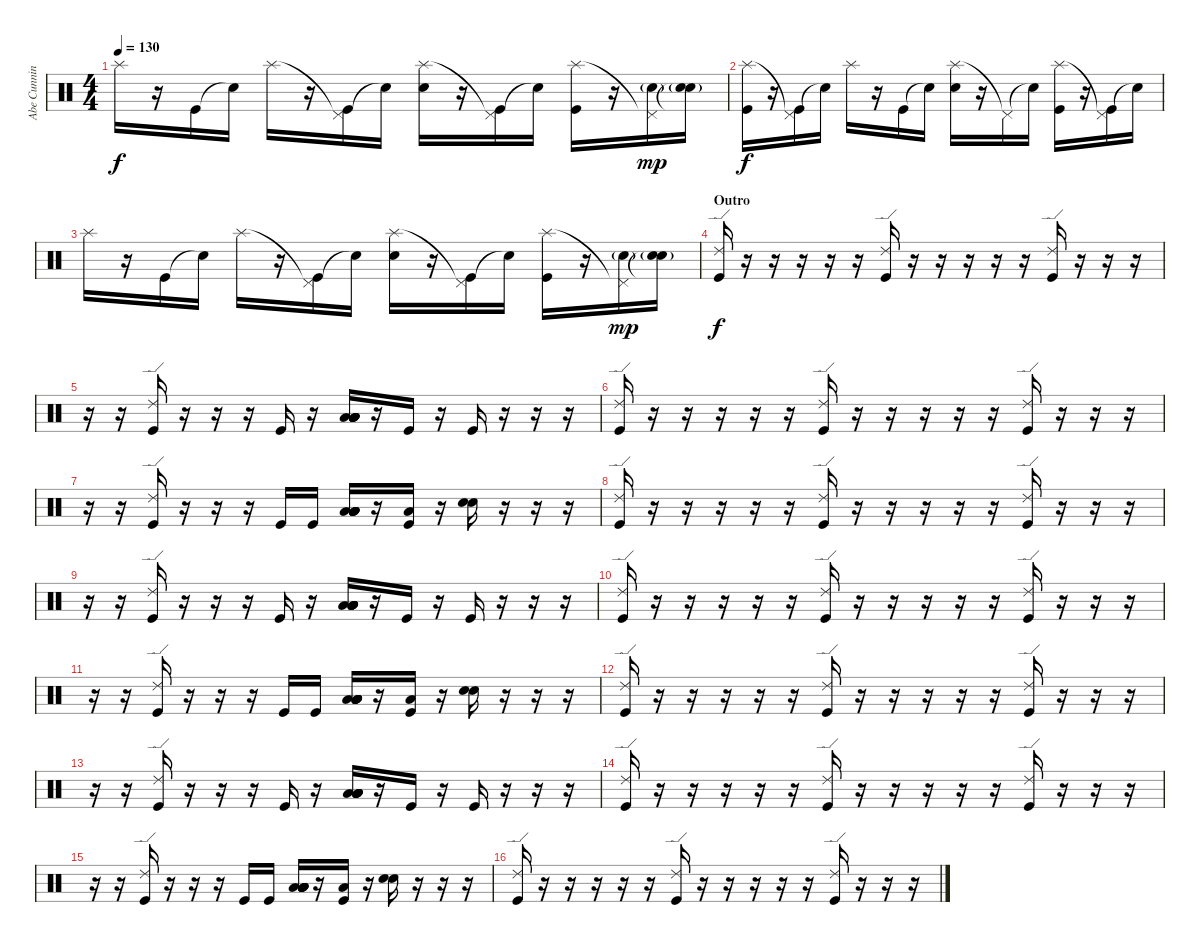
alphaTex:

\track ("Abe Cunningham" "Abe Cunnin") {instrument percussion}
\staff {score}
\articulation defaults
\ts (4 4)
\tempo 130
\clef neutral
\ks c "Splash (hit)".16{dy f}
r.16 "Kick (hit)".16 "Snare (hit)"{t}.16 "Splash (hit)".16 r.16 ("Pedal Hi-Hat (hit)"{t} "Kick (hit)").16 "Snare (hit)"{t}.16 ("Splash (hit)" "Electric Snare (hit)").16 r.16 ("Pedal Hi-Hat (hit)"{t} "Kick (hit)").16 "Snare (hit)"{t}.16 ("Splash (hit)" "Kick (hit)").16 r.16 ("Pedal Hi-Hat (hit)"{t} "Electric Snare (hit)"{g}).16{dy mp} ("Snare (hit)"{t} "Electric Snare (hit)"{g}).16 |
("Splash (hit)" "Kick (hit)").16{dy f} r.16 ("Pedal Hi-Hat (hit)"{t} "Kick (hit)").16 "Snare (hit)"{t}.16 "Splash (hit)".16 r.16 "Kick (hit)".16 "Snare (hit)"{t}.16 ("Splash (hit)" "Electric Snare (hit)").16 r.16 "Pedal Hi-Hat (hit)"{t}.16 "Snare (hit)"{t}.16 ("Splash (hit)" "Kick (hit)").16 r.16 ("Pedal Hi-Hat (hit)"{t} "Kick (hit)").16 "Snare (hit)"{t}.16 |
"Splash (hit)".16 r.16 "Kick (hit)".16 "Snare (hit)"{t}.16 "Splash (hit)".16 r.16 ("Pedal Hi-Hat (hit)"{t} "Kick (hit)").16 "Snare (hit)"{t}.16 ("Splash (hit)" "Electric Snare (hit)").16 r.16 ("Pedal Hi-Hat (hit)"{t} "Kick (hit)").16 "Snare (hit)"{t}.16 ("Splash (hit)" "Kick (hit)").16 r.16 ("Pedal Hi-Hat (hit)"{t} "Electric Snare (hit)"{g}).16{dy mp} ("Snare (hit)"{t} "Electric Snare (hit)"{g}).16 |
\section ("" "Outro")
("Ride (edge) 2" "Kick (hit)").16{dy f} r.16 r.16 r.16 r.16 r.16 ("Ride (edge) 2" "Kick (hit)").16 r.16 r.16 r.16 r.16 r.16 ("Ride (edge) 2" "Kick (hit)").16 r.16 r.16 r.16 |
r.16 r.16 ("Ride (edge) 2" "Kick (hit)").16 r.16 r.16 r.16 "Kick (hit)".16 r.16 ("Low Tom (hit)" "Low Tom (hit)" "Low Tom (hit)" "Low Tom (hit)" "Low Tom (hit)" "Low Tom (hit)").16 r.16 "Kick (hit)".16 r.16 "Kick (hit)".16 r.16 r.16 r.16 |
("Ride (edge) 2" "Kick (hit)").16 r.16 r.16 r.16 r.16 r.16 ("Ride (edge) 2" "Kick (hit)").16 r.16 r.16 r.16 r.16 r.16 ("Ride (edge) 2" "Kick (hit)").16 r.16 r.16 r.16 |
r.16 r.16 ("Ride (edge) 2" "Kick (hit)").16 r.16 r.16 r.16 "Kick (hit)".16 "Kick (hit)".16 ("Low Tom (hit)" "Low Tom (hit)" "Low Tom (hit)" "Low Tom (hit)" "Low Tom (hit)" "Low Tom (hit)").16 r.16 ("Low Tom (hit)" "Kick (hit)").16 r.16 ("Electric Snare (hit)" "Electric Snare (hit)").16 r.16 r.16 r.16 |
("Ride (edge) 2" "Kick (hit)").16 r.16 r.16 r.16 r.16 r.16 ("Ride (edge) 2" "Kick (hit)").16 r.16 r.16 r.16 r.16 r.16 ("Ride (edge) 2" "Kick (hit)").16 r.16 r.16 r.16 |
r.16 r.16 ("Ride (edge) 2" "Kick (hit)").16 r.16 r.16 r.16 "Kick (hit)".16 r.16 ("Low Tom (hit)" "Low Tom (hit)" "Low Tom (hit)" "Low Tom (hit)" "Low Tom (hit)" "Low Tom (hit)").16 r.16 "Kick (hit)".16 r.16 "Kick (hit)".16 r.16 r.16 r.16 |
("Ride (edge) 2" "Kick (hit)").16 r.16 r.16 r.16 r.16 r.16 ("Ride (edge) 2" "Kick (hit)").16 r.16 r.16 r.16 r.16 r.16 ("Ride (edge) 2" "Kick (hit)").16 r.16 r.16 r.16 |
r.16 r.16 ("Ride (edge) 2" "Kick (hit)").16 r.16 r.16 r.16 "Kick (hit)".16 "Kick (hit)".16 ("Low Tom (hit)" "Low Tom (hit)" "Low Tom (hit)" "Low Tom (hit)" "Low Tom (hit)" "Low Tom (hit)").16 r.16 ("Low Tom (hit)" "Kick (hit)").16 r.16 ("Electric Snare (hit)" "Electric Snare (hit)").16 r.16 r.16 r.16 |
("Ride (edge) 2" "Kick (hit)").16 r.16 r.16 r.16 r.16 r.16 ("Ride (edge) 2" "Kick (hit)").16 r.16 r.16 r.16 r.16 r.16 ("Ride (edge) 2" "Kick (hit)").16 r.16 r.16 r.16 |
r.16 r.16 ("Ride (edge) 2" "Kick (hit)").16 r.16 r.16 r.16 "Kick (hit)".16 r.16 ("Low Tom (hit)" "Low Tom (hit)" "Low Tom (hit)" "Low Tom (hit)" "Low Tom (hit)" "Low Tom (hit)").16 r.16 "Kick (hit)".16 r.16 "Kick (hit)".16 r.16 r.16 r.16 |
("Ride (edge) 2" "Kick (hit)").16 r.16 r.16 r.16 r.16 r.16 ("Ride (edge) 2" "Kick (hit)").16 r.16 r.16 r.16 r.16 r.16 ("Ride (edge) 2" "Kick (hit)").16 r.16 r.16 r.16 |
r.16 r.16 ("Ride (edge) 2" "Kick (hit)").16 r.16 r.16 r.16 "Kick (hit)".16 "Kick (hit)".16 ("Low Tom (hit)" "Low Tom (hit)" "Low Tom (hit)" "Low Tom (hit)" "Low Tom (hit)" "Low Tom (hit)").16 r.16 ("Low Tom (hit)" "Kick (hit)").16 r.16 ("Electric Snare (hit)" "Electric Snare (hit)").16 r.16 r.16 r.16 |
("Ride (edge) 2" "Kick (hit)").16 r.16 r.16 r.16 r.16 r.16 ("Ride (edge) 2" "Kick (hit)").16 r.16 r.16 r.16 r.16 r.16 ("Ride (edge) 2" "Kick (hit)").16 r.16 r.16 r.16
